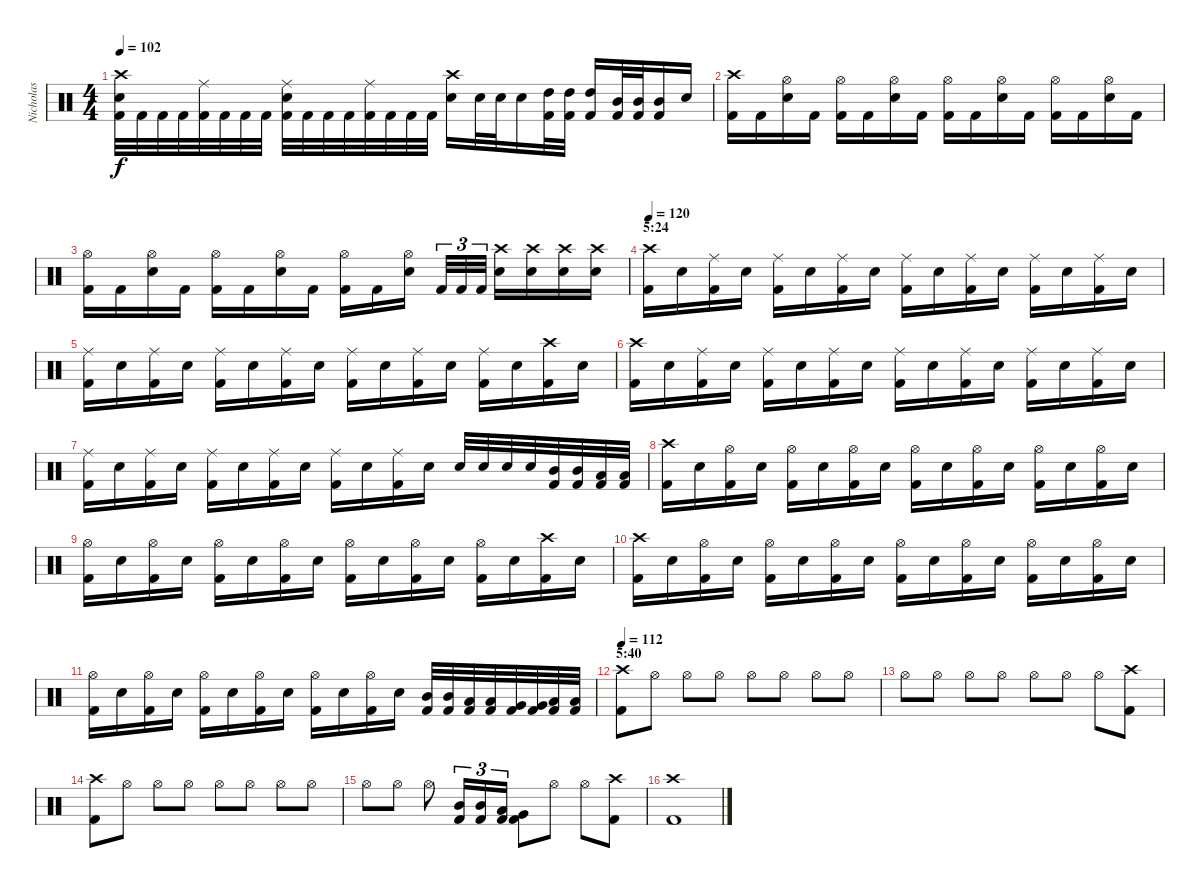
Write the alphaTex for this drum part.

\track ("Nicholas" "Nicholas") {instrument percussion}
\staff {score}
\articulation defaults
\ts (4 4)
\tempo 102
\clef neutral
\ks c
("Kick (hit) 2" "Snare (hit) 2" "Crash high (hit)").32{dy f} "Kick (hit) 2".32 "Kick (hit) 2".32 "Kick (hit) 2".32 ("Kick (hit) 2" "Ride (middle)").32 "Kick (hit) 2".32 "Kick (hit) 2".32 "Kick (hit) 2".32 ("Kick (hit) 2" "Snare (hit) 2" "Ride (middle)").32 "Kick (hit) 2".32 "Kick (hit) 2".32 "Kick (hit) 2".32 ("Kick (hit) 2" "Ride (middle)").32 "Kick (hit) 2".32 "Kick (hit) 2".32 "Kick (hit) 2".32 ("Snare (hit) 2" "Crash high (hit)").16 "Snare (hit) 2".32 "Snare (hit) 2".32 "Snare (hit) 2".16 ("Kick (hit) 2" "High Tom (hit)").32 ("Kick (hit) 2" "High Tom (hit)").32 ("Kick (hit) 2" "High Tom (hit)").16 ("Kick (hit) 2" "Mid Tom (hit)").32 ("Kick (hit) 2" "Mid Tom (hit)").32 ("Kick (hit) 2" "Mid Tom (hit)").16 "Snare (hit) 2".16 |
("Kick (hit) 2" "Crash high (hit)").16 "Kick (hit) 2".16 ("Snare (hit) 2" "Hi-Hat (open)").16 "Kick (hit) 2".16 ("Kick (hit) 2" "Hi-Hat (open)").16 "Kick (hit) 2".16 ("Snare (hit) 2" "Hi-Hat (open)").16 "Kick (hit) 2".16 ("Kick (hit) 2" "Hi-Hat (open)").16 "Kick (hit) 2".16 ("Snare (hit) 2" "Hi-Hat (open)").16 "Kick (hit) 2".16 ("Kick (hit) 2" "Hi-Hat (open)").16 "Kick (hit) 2".16 ("Snare (hit) 2" "Hi-Hat (open)").16 "Kick (hit) 2".16 |
("Kick (hit) 2" "Hi-Hat (open)").16 "Kick (hit) 2".16 ("Snare (hit) 2" "Hi-Hat (open)").16 "Kick (hit) 2".16 ("Kick (hit) 2" "Hi-Hat (open)").16 "Kick (hit) 2".16 ("Snare (hit) 2" "Hi-Hat (open)").16 "Kick (hit) 2".16 ("Kick (hit) 2" "Hi-Hat (open)").16 "Kick (hit) 2".16 ("Snare (hit) 2" "Hi-Hat (open)").16 "Kick (hit) 2".32{tu (3 2)} "Kick (hit) 2".32{tu (3 2)} "Kick (hit) 2".32{tu (3 2)} ("Snare (hit) 2" "Crash high (hit)").16 ("Snare (hit) 2" "Crash high (hit)").16 ("Snare (hit) 2" "Crash high (hit)").16 ("Snare (hit) 2" "Crash high (hit)").16 |
\section ("" "5:24")
\tempo 120
("Kick (hit) 2" "Crash high (hit)").16 "Snare (hit) 2".16 ("Kick (hit) 2" "Ride (middle)").16 "Snare (hit) 2".16 ("Kick (hit) 2" "Ride (middle)").16 "Snare (hit) 2".16 ("Kick (hit) 2" "Ride (middle)").16 "Snare (hit) 2".16 ("Kick (hit) 2" "Ride (middle)").16 "Snare (hit) 2".16 ("Kick (hit) 2" "Ride (middle)").16 "Snare (hit) 2".16 ("Kick (hit) 2" "Ride (middle)").16 "Snare (hit) 2".16 ("Kick (hit) 2" "Ride (middle)").16 "Snare (hit) 2".16 |
("Kick (hit) 2" "Ride (middle)").16 "Snare (hit) 2".16 ("Kick (hit) 2" "Ride (middle)").16 "Snare (hit) 2".16 ("Kick (hit) 2" "Ride (middle)").16 "Snare (hit) 2".16 ("Kick (hit) 2" "Ride (middle)").16 "Snare (hit) 2".16 ("Kick (hit) 2" "Ride (middle)").16 "Snare (hit) 2".16 ("Kick (hit) 2" "Ride (middle)").16 "Snare (hit) 2".16 ("Kick (hit) 2" "Ride (middle)").16 "Snare (hit) 2".16 ("Kick (hit) 2" "Crash high (hit)").16 "Snare (hit) 2".16 |
("Kick (hit) 2" "Crash high (hit)").16 "Snare (hit) 2".16 ("Kick (hit) 2" "Ride (middle)").16 "Snare (hit) 2".16 ("Kick (hit) 2" "Ride (middle)").16 "Snare (hit) 2".16 ("Kick (hit) 2" "Ride (middle)").16 "Snare (hit) 2".16 ("Kick (hit) 2" "Ride (middle)").16 "Snare (hit) 2".16 ("Kick (hit) 2" "Ride (middle)").16 "Snare (hit) 2".16 ("Kick (hit) 2" "Ride (middle)").16 "Snare (hit) 2".16 ("Kick (hit) 2" "Ride (middle)").16 "Snare (hit) 2".16 |
("Kick (hit) 2" "Ride (middle)").16 "Snare (hit) 2".16 ("Kick (hit) 2" "Ride (middle)").16 "Snare (hit) 2".16 ("Kick (hit) 2" "Ride (middle)").16 "Snare (hit) 2".16 ("Kick (hit) 2" "Ride (middle)").16 "Snare (hit) 2".16 ("Kick (hit) 2" "Ride (middle)").16 "Snare (hit) 2".16 ("Kick (hit) 2" "Ride (middle)").16 "Snare (hit) 2".16 "Snare (hit) 2".32 "Snare (hit) 2".32 "Snare (hit) 2".32 "Snare (hit) 2".32 ("Kick (hit) 2" "Mid Tom (hit)").32 ("Kick (hit) 2" "Mid Tom (hit)").32 ("Kick (hit) 2" "Low Tom (hit)").32 ("Kick (hit) 2" "Low Tom (hit)").32 |
("Kick (hit) 2" "Crash high (hit)").16 "Snare (hit) 2".16 ("Kick (hit) 2" "Hi-Hat (open)").16 "Snare (hit) 2".16 ("Kick (hit) 2" "Hi-Hat (open)").16 "Snare (hit) 2".16 ("Kick (hit) 2" "Hi-Hat (open)").16 "Snare (hit) 2".16 ("Kick (hit) 2" "Hi-Hat (open)").16 "Snare (hit) 2".16 ("Kick (hit) 2" "Hi-Hat (open)").16 "Snare (hit) 2".16 ("Kick (hit) 2" "Hi-Hat (open)").16 "Snare (hit) 2".16 ("Kick (hit) 2" "Hi-Hat (open)").16 "Snare (hit) 2".16 |
("Kick (hit) 2" "Hi-Hat (open)").16 "Snare (hit) 2".16 ("Kick (hit) 2" "Hi-Hat (open)").16 "Snare (hit) 2".16 ("Kick (hit) 2" "Hi-Hat (open)").16 "Snare (hit) 2".16 ("Kick (hit) 2" "Hi-Hat (open)").16 "Snare (hit) 2".16 ("Kick (hit) 2" "Hi-Hat (open)").16 "Snare (hit) 2".16 ("Kick (hit) 2" "Hi-Hat (open)").16 "Snare (hit) 2".16 ("Kick (hit) 2" "Hi-Hat (open)").16 "Snare (hit) 2".16 ("Kick (hit) 2" "Crash high (hit)").16 "Snare (hit) 2".16 |
("Kick (hit) 2" "Crash high (hit)").16 "Snare (hit) 2".16 ("Kick (hit) 2" "Hi-Hat (open)").16 "Snare (hit) 2".16 ("Kick (hit) 2" "Hi-Hat (open)").16 "Snare (hit) 2".16 ("Kick (hit) 2" "Hi-Hat (open)").16 "Snare (hit) 2".16 ("Kick (hit) 2" "Hi-Hat (open)").16 "Snare (hit) 2".16 ("Kick (hit) 2" "Hi-Hat (open)").16 "Snare (hit) 2".16 ("Kick (hit) 2" "Hi-Hat (open)").16 "Snare (hit) 2".16 ("Kick (hit) 2" "Hi-Hat (open)").16 "Snare (hit) 2".16 |
("Kick (hit) 2" "Hi-Hat (open)").16 "Snare (hit) 2".16 ("Kick (hit) 2" "Hi-Hat (open)").16 "Snare (hit) 2".16 ("Kick (hit) 2" "Hi-Hat (open)").16 "Snare (hit) 2".16 ("Kick (hit) 2" "Hi-Hat (open)").16 "Snare (hit) 2".16 ("Kick (hit) 2" "Hi-Hat (open)").16 "Snare (hit) 2".16 ("Kick (hit) 2" "Hi-Hat (open)").16 "Snare (hit) 2".16 ("Kick (hit) 2" "Mid Tom (hit)").32 ("Kick (hit) 2" "Mid Tom (hit)").32 ("Kick (hit) 2" "Low Tom (hit)").32 ("Kick (hit) 2" "Low Tom (hit)").32 ("Kick (hit) 2" "Very Low Tom (hit)").32 ("Kick (hit) 2" "Very Low Tom (hit)").32 ("Kick (hit) 2" "Low Floor Tom (hit)").32 ("Kick (hit) 2" "Low Floor Tom (hit)").32 |
\section ("" "5:40")
\tempo 112
("Kick (hit) 2" "Crash high (hit)").8 "Hi-Hat (open)".8 "Hi-Hat (open)".8 "Hi-Hat (open)".8 "Hi-Hat (open)".8 "Hi-Hat (open)".8 "Hi-Hat (open)".8 "Hi-Hat (open)".8 |
"Hi-Hat (open)".8 "Hi-Hat (open)".8 "Hi-Hat (open)".8 "Hi-Hat (open)".8 "Hi-Hat (open)".8 "Hi-Hat (open)".8 "Hi-Hat (open)".8 ("Kick (hit) 2" "Crash high (hit)").8 |
("Kick (hit) 2" "Crash high (hit)").8 "Hi-Hat (open)".8 "Hi-Hat (open)".8 "Hi-Hat (open)".8 "Hi-Hat (open)".8 "Hi-Hat (open)".8 "Hi-Hat (open)".8 "Hi-Hat (open)".8 |
"Hi-Hat (open)".8 "Hi-Hat (open)".8 "Hi-Hat (open)".8 ("Kick (hit) 2" "Mid Tom (hit)").16{tu (3 2)} ("Kick (hit) 2" "Mid Tom (hit)").16{tu (3 2)} ("Kick (hit) 2" "Low Tom (hit)").16{tu (3 2)} ("Kick (hit) 2" "Very Low Tom (hit)").8 "Hi-Hat (open)".8 "Hi-Hat (open)".8 ("Kick (hit) 2" "Crash high (hit)").8 |
("Kick (hit) 2" "Crash high (hit)").1
